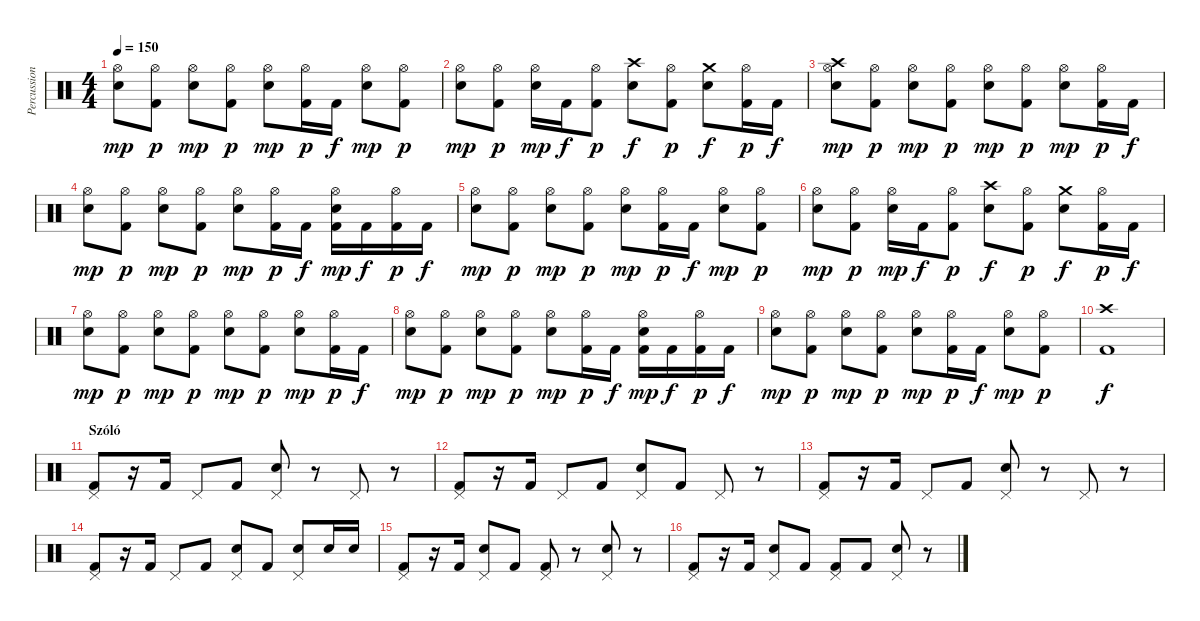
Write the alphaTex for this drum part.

\track ("Percussion" "Percussion") {instrument percussion}
\staff {score}
\articulation defaults
\ts (4 4)
\tempo 150
\clef neutral
\ks c
("Hi-Hat (open)" "Snare (hit) 2").8{dy mp} ("Hi-Hat (open)" "Kick (hit) 2").8{dy p} ("Hi-Hat (open)" "Snare (hit) 2").8{dy mp} ("Hi-Hat (open)" "Kick (hit) 2").8{dy p} ("Hi-Hat (open)" "Snare (hit) 2").8{dy mp} ("Hi-Hat (open)" "Kick (hit) 2").16{dy p} "Kick (hit) 2".16{dy f} ("Hi-Hat (open)" "Snare (hit) 2").8{dy mp} ("Hi-Hat (open)" "Kick (hit) 2").8{dy p} |
("Hi-Hat (open)" "Snare (hit) 2").8{dy mp} ("Hi-Hat (open)" "Kick (hit) 2").8{dy p} ("Hi-Hat (open)" "Snare (hit) 2").16{dy mp} "Kick (hit) 2".16{dy f} ("Hi-Hat (open)" "Kick (hit) 2").8{dy p} ("Crash high (hit)" "Snare (hit) 2").8{dy f} ("Hi-Hat (open)" "Kick (hit) 2").8{dy p} ("Crash medium (hit)" "Snare (hit) 2").8{dy f} ("Hi-Hat (open)" "Kick (hit) 2").16{dy p} "Kick (hit) 2".16{dy f} |
("Hi-Hat (open)" "Crash high (hit)" "Snare (hit) 2").8{dy mp} ("Hi-Hat (open)" "Kick (hit) 2").8{dy p} ("Hi-Hat (open)" "Snare (hit) 2").8{dy mp} ("Hi-Hat (open)" "Kick (hit) 2").8{dy p} ("Hi-Hat (open)" "Snare (hit) 2").8{dy mp} ("Hi-Hat (open)" "Kick (hit) 2").8{dy p} ("Hi-Hat (open)" "Snare (hit) 2").8{dy mp} ("Hi-Hat (open)" "Kick (hit) 2").16{dy p} "Kick (hit) 2".16{dy f} |
("Hi-Hat (open)" "Snare (hit) 2").8{dy mp} ("Hi-Hat (open)" "Kick (hit) 2").8{dy p} ("Hi-Hat (open)" "Snare (hit) 2").8{dy mp} ("Hi-Hat (open)" "Kick (hit) 2").8{dy p} ("Hi-Hat (open)" "Snare (hit) 2").8{dy mp} ("Hi-Hat (open)" "Kick (hit) 2").16{dy p} "Kick (hit) 2".16{dy f} ("Hi-Hat (open)" "Kick (hit) 2" "Snare (hit) 2").16{dy mp} "Kick (hit) 2".16{dy f} ("Hi-Hat (open)" "Kick (hit) 2").16{dy p} "Kick (hit) 2".16{dy f} |
("Hi-Hat (open)" "Snare (hit) 2").8{dy mp} ("Hi-Hat (open)" "Kick (hit) 2").8{dy p} ("Hi-Hat (open)" "Snare (hit) 2").8{dy mp} ("Hi-Hat (open)" "Kick (hit) 2").8{dy p} ("Hi-Hat (open)" "Snare (hit) 2").8{dy mp} ("Hi-Hat (open)" "Kick (hit) 2").16{dy p} "Kick (hit) 2".16{dy f} ("Hi-Hat (open)" "Snare (hit) 2").8{dy mp} ("Hi-Hat (open)" "Kick (hit) 2").8{dy p} |
("Hi-Hat (open)" "Snare (hit) 2").8{dy mp} ("Hi-Hat (open)" "Kick (hit) 2").8{dy p} ("Hi-Hat (open)" "Snare (hit) 2").16{dy mp} "Kick (hit) 2".16{dy f} ("Hi-Hat (open)" "Kick (hit) 2").8{dy p} ("Crash high (hit)" "Snare (hit) 2").8{dy f} ("Hi-Hat (open)" "Kick (hit) 2").8{dy p} ("Crash medium (hit)" "Snare (hit) 2").8{dy f} ("Hi-Hat (open)" "Kick (hit) 2").16{dy p} "Kick (hit) 2".16{dy f} |
("Hi-Hat (open)" "Snare (hit) 2").8{dy mp} ("Hi-Hat (open)" "Kick (hit) 2").8{dy p} ("Hi-Hat (open)" "Snare (hit) 2").8{dy mp} ("Hi-Hat (open)" "Kick (hit) 2").8{dy p} ("Hi-Hat (open)" "Snare (hit) 2").8{dy mp} ("Hi-Hat (open)" "Kick (hit) 2").8{dy p} ("Hi-Hat (open)" "Snare (hit) 2").8{dy mp} ("Hi-Hat (open)" "Kick (hit) 2").16{dy p} "Kick (hit) 2".16{dy f} |
("Hi-Hat (open)" "Snare (hit) 2").8{dy mp} ("Hi-Hat (open)" "Kick (hit) 2").8{dy p} ("Hi-Hat (open)" "Snare (hit) 2").8{dy mp} ("Hi-Hat (open)" "Kick (hit) 2").8{dy p} ("Hi-Hat (open)" "Snare (hit) 2").8{dy mp} ("Hi-Hat (open)" "Kick (hit) 2").16{dy p} "Kick (hit) 2".16{dy f} ("Hi-Hat (open)" "Kick (hit) 2" "Snare (hit) 2").16{dy mp} "Kick (hit) 2".16{dy f} ("Hi-Hat (open)" "Kick (hit) 2").16{dy p} "Kick (hit) 2".16{dy f} |
("Hi-Hat (open)" "Snare (hit) 2").8{dy mp} ("Hi-Hat (open)" "Kick (hit) 2").8{dy p} ("Hi-Hat (open)" "Snare (hit) 2").8{dy mp} ("Hi-Hat (open)" "Kick (hit) 2").8{dy p} ("Hi-Hat (open)" "Snare (hit) 2").8{dy mp} ("Hi-Hat (open)" "Kick (hit) 2").16{dy p} "Kick (hit) 2".16{dy f} ("Hi-Hat (open)" "Snare (hit) 2").8{dy mp} ("Hi-Hat (open)" "Kick (hit) 2").8{dy p} |
("Crash high (hit)" "Kick (hit) 2").1{dy f} |
\section ("" "Szóló")
("Pedal Hi-Hat (hit)" "Kick (hit) 2").8 r.16 "Kick (hit) 2".16 "Pedal Hi-Hat (hit)".8 "Kick (hit) 2".8 ("Pedal Hi-Hat (hit)" "Snare (hit) 2").8 r.8 "Pedal Hi-Hat (hit)".8 r.8 |
("Pedal Hi-Hat (hit)" "Kick (hit) 2").8 r.16 "Kick (hit) 2".16 "Pedal Hi-Hat (hit)".8 "Kick (hit) 2".8 ("Pedal Hi-Hat (hit)" "Snare (hit) 2").8 "Kick (hit) 2".8 "Pedal Hi-Hat (hit)".8 r.8 |
("Pedal Hi-Hat (hit)" "Kick (hit) 2").8 r.16 "Kick (hit) 2".16 "Pedal Hi-Hat (hit)".8 "Kick (hit) 2".8 ("Pedal Hi-Hat (hit)" "Snare (hit) 2").8 r.8 "Pedal Hi-Hat (hit)".8 r.8 |
("Pedal Hi-Hat (hit)" "Kick (hit) 2").8 r.16 "Kick (hit) 2".16 "Pedal Hi-Hat (hit)".8 "Kick (hit) 2".8 ("Pedal Hi-Hat (hit)" "Snare (hit) 2").8 "Kick (hit) 2".8 ("Pedal Hi-Hat (hit)" "Snare (hit) 2").8 "Snare (hit) 2".16 "Snare (hit) 2".16 |
("Pedal Hi-Hat (hit)" "Kick (hit) 2").8 r.16 "Kick (hit) 2".16 ("Pedal Hi-Hat (hit)" "Snare (hit) 2").8 "Kick (hit) 2".8 ("Pedal Hi-Hat (hit)" "Kick (hit) 2").8 r.8 ("Pedal Hi-Hat (hit)" "Snare (hit) 2").8 r.8 |
("Pedal Hi-Hat (hit)" "Kick (hit) 2").8 r.16 "Kick (hit) 2".16 ("Pedal Hi-Hat (hit)" "Snare (hit) 2").8 "Kick (hit) 2".8 ("Pedal Hi-Hat (hit)" "Kick (hit) 2").8 "Kick (hit) 2".8 ("Pedal Hi-Hat (hit)" "Snare (hit) 2").8 r.8
